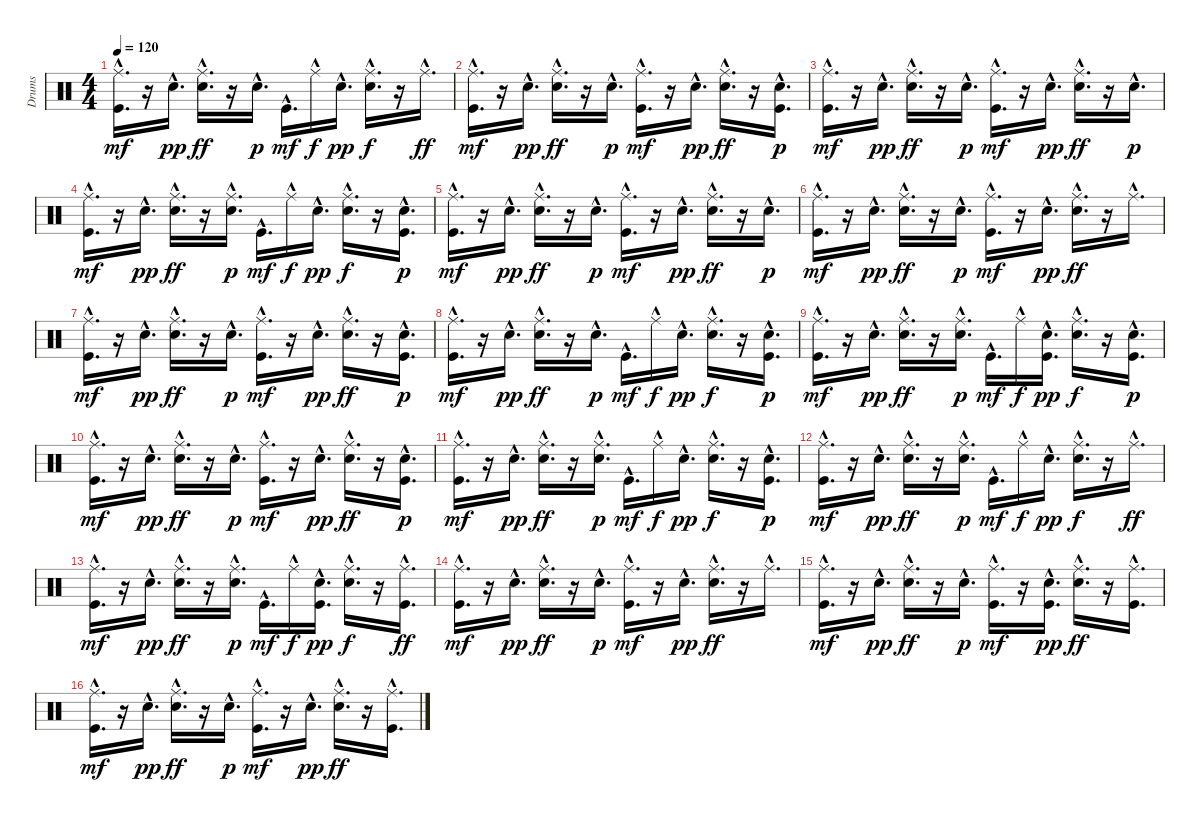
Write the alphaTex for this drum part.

\track ("Drums" "Drums") {instrument percussion}
\staff {score}
\articulation defaults
\ts (4 4)
\tempo 120
\clef neutral
\ks c
("Kick (hit)"{hac} "Ride (middle)"{hac}).16{d dy mf} r.16 "Snare (hit) 2"{hac}.16{d dy pp} ("Snare (hit) 2"{hac} "Ride (middle)"{hac}).16{d dy ff} r.16 "Snare (hit) 2"{hac}.16{d dy p} "Kick (hit)"{hac}.16{d dy mf} "Ride (middle)"{hac}.16{dy f} "Snare (hit) 2"{hac}.16{d dy pp} ("Snare (hit) 2"{hac} "Ride (middle)"{hac}).16{d dy f} r.16 "Ride (middle)"{hac}.16{d dy ff} |
("Kick (hit)"{hac} "Ride (middle)"{hac}).16{d dy mf} r.16 "Snare (hit) 2"{hac}.16{d dy pp} ("Snare (hit) 2"{hac} "Ride (middle)"{hac}).16{d dy ff} r.16 "Snare (hit) 2"{hac}.16{d dy p} ("Kick (hit)"{hac} "Ride (middle)"{hac}).16{d dy mf} r.16 "Snare (hit) 2"{hac}.16{d dy pp} ("Snare (hit) 2"{hac} "Ride (middle)"{hac}).16{d dy ff} r.16 ("Kick (hit)"{hac} "Snare (hit) 2"{hac}).16{d dy p} |
("Kick (hit)"{hac} "Ride (middle)"{hac}).16{d dy mf} r.16 "Snare (hit) 2"{hac}.16{d dy pp} ("Snare (hit) 2"{hac} "Ride (middle)"{hac}).16{d dy ff} r.16 "Snare (hit) 2"{hac}.16{d dy p} ("Kick (hit)"{hac} "Ride (middle)"{hac}).16{d dy mf} r.16 "Snare (hit) 2"{hac}.16{d dy pp} ("Snare (hit) 2"{hac} "Ride (middle)"{hac}).16{d dy ff} r.16 "Snare (hit) 2"{hac}.16{d dy p} |
("Kick (hit)"{hac} "Ride (middle)"{hac}).16{d dy mf} r.16 "Snare (hit) 2"{hac}.16{d dy pp} ("Snare (hit) 2"{hac} "Ride (middle)"{hac}).16{d dy ff} r.16 ("Snare (hit) 2"{hac} "Ride (middle)"{hac}).16{d dy p} "Kick (hit)"{hac}.16{d dy mf} "Ride (middle)"{hac}.16{dy f} "Snare (hit) 2"{hac}.16{d dy pp} ("Snare (hit) 2"{hac} "Ride (middle)"{hac}).16{d dy f} r.16 ("Kick (hit)"{hac} "Snare (hit) 2"{hac}).16{d dy p} |
("Kick (hit)"{hac} "Ride (middle)"{hac}).16{d dy mf} r.16 "Snare (hit) 2"{hac}.16{d dy pp} ("Snare (hit) 2"{hac} "Ride (middle)"{hac}).16{d dy ff} r.16 "Snare (hit) 2"{hac}.16{d dy p} ("Kick (hit)"{hac} "Ride (middle)"{hac}).16{d dy mf} r.16 "Snare (hit) 2"{hac}.16{d dy pp} ("Snare (hit) 2"{hac} "Ride (middle)"{hac}).16{d dy ff} r.16 "Snare (hit) 2"{hac}.16{d dy p} |
("Kick (hit)"{hac} "Ride (middle)"{hac}).16{d dy mf} r.16 "Snare (hit) 2"{hac}.16{d dy pp} ("Snare (hit) 2"{hac} "Ride (middle)"{hac}).16{d dy ff} r.16 "Snare (hit) 2"{hac}.16{d dy p} ("Kick (hit)"{hac} "Ride (middle)"{hac}).16{d dy mf} r.16 "Snare (hit) 2"{hac}.16{d dy pp} ("Snare (hit) 2"{hac} "Ride (middle)"{hac}).16{d dy ff} r.16 "Ride (middle)"{hac}.16{d} |
("Kick (hit)"{hac} "Ride (middle)"{hac}).16{d dy mf} r.16 "Snare (hit) 2"{hac}.16{d dy pp} ("Snare (hit) 2"{hac} "Ride (middle)"{hac}).16{d dy ff} r.16 "Snare (hit) 2"{hac}.16{d dy p} ("Kick (hit)"{hac} "Ride (middle)"{hac}).16{d dy mf} r.16 "Snare (hit) 2"{hac}.16{d dy pp} ("Snare (hit) 2"{hac} "Ride (middle)"{hac}).16{d dy ff} r.16 ("Kick (hit)"{hac} "Snare (hit) 2"{hac}).16{d dy p} |
("Kick (hit)"{hac} "Ride (middle)"{hac}).16{d dy mf} r.16 "Snare (hit) 2"{hac}.16{d dy pp} ("Snare (hit) 2"{hac} "Ride (middle)"{hac}).16{d dy ff} r.16 "Snare (hit) 2"{hac}.16{d dy p} "Kick (hit)"{hac}.16{d dy mf} "Ride (middle)"{hac}.16{dy f} "Snare (hit) 2"{hac}.16{d dy pp} ("Snare (hit) 2"{hac} "Ride (middle)"{hac}).16{d dy f} r.16 ("Kick (hit)"{hac} "Snare (hit) 2"{hac}).16{d dy p} |
("Kick (hit)"{hac} "Ride (middle)"{hac}).16{d dy mf} r.16 "Snare (hit) 2"{hac}.16{d dy pp} ("Snare (hit) 2"{hac} "Ride (middle)"{hac}).16{d dy ff} r.16 ("Snare (hit) 2"{hac} "Ride (middle)"{hac}).16{d dy p} "Kick (hit)"{hac}.16{d dy mf} "Ride (middle)"{hac}.16{dy f} ("Kick (hit)"{hac} "Snare (hit) 2"{hac}).16{d dy pp} ("Snare (hit) 2"{hac} "Ride (middle)"{hac}).16{d dy f} r.16 ("Kick (hit)"{hac} "Snare (hit) 2"{hac}).16{d dy p} |
("Kick (hit)"{hac} "Ride (middle)"{hac}).16{d dy mf} r.16 "Snare (hit) 2"{hac}.16{d dy pp} ("Snare (hit) 2"{hac} "Ride (middle)"{hac}).16{d dy ff} r.16 "Snare (hit) 2"{hac}.16{d dy p} ("Kick (hit)"{hac} "Ride (middle)"{hac}).16{d dy mf} r.16 "Snare (hit) 2"{hac}.16{d dy pp} ("Snare (hit) 2"{hac} "Ride (middle)"{hac}).16{d dy ff} r.16 ("Kick (hit)"{hac} "Snare (hit) 2"{hac}).16{d dy p} |
("Kick (hit)"{hac} "Ride (middle)"{hac}).16{d dy mf} r.16 "Snare (hit) 2"{hac}.16{d dy pp} ("Snare (hit) 2"{hac} "Ride (middle)"{hac}).16{d dy ff} r.16 ("Snare (hit) 2"{hac} "Ride (middle)"{hac}).16{d dy p} "Kick (hit)"{hac}.16{d dy mf} "Ride (middle)"{hac}.16{dy f} "Snare (hit) 2"{hac}.16{d dy pp} ("Snare (hit) 2"{hac} "Ride (middle)"{hac}).16{d dy f} r.16 ("Kick (hit)"{hac} "Snare (hit) 2"{hac}).16{d dy p} |
("Kick (hit)"{hac} "Ride (middle)"{hac}).16{d dy mf} r.16 "Snare (hit) 2"{hac}.16{d dy pp} ("Snare (hit) 2"{hac} "Ride (middle)"{hac}).16{d dy ff} r.16 ("Snare (hit) 2"{hac} "Ride (middle)"{hac}).16{d dy p} "Kick (hit)"{hac}.16{d dy mf} "Ride (middle)"{hac}.16{dy f} "Snare (hit) 2"{hac}.16{d dy pp} ("Snare (hit) 2"{hac} "Ride (middle)"{hac}).16{d dy f} r.16 "Ride (middle)"{hac}.16{d dy ff} |
("Kick (hit)"{hac} "Ride (middle)"{hac}).16{d dy mf} r.16 "Snare (hit) 2"{hac}.16{d dy pp} ("Snare (hit) 2"{hac} "Ride (middle)"{hac}).16{d dy ff} r.16 ("Snare (hit) 2"{hac} "Ride (middle)"{hac}).16{d dy p} "Kick (hit)"{hac}.16{d dy mf} "Ride (middle)"{hac}.16{dy f} ("Kick (hit)"{hac} "Snare (hit) 2"{hac}).16{d dy pp} ("Snare (hit) 2"{hac} "Ride (middle)"{hac}).16{d dy f} r.16 ("Kick (hit)"{hac} "Ride (middle)"{hac}).16{d dy ff} |
("Kick (hit)"{hac} "Ride (middle)"{hac}).16{d dy mf} r.16 "Snare (hit) 2"{hac}.16{d dy pp} ("Snare (hit) 2"{hac} "Ride (middle)"{hac}).16{d dy ff} r.16 "Snare (hit) 2"{hac}.16{d dy p} ("Kick (hit)"{hac} "Ride (middle)"{hac}).16{d dy mf} r.16 "Snare (hit) 2"{hac}.16{d dy pp} ("Snare (hit) 2"{hac} "Ride (middle)"{hac}).16{d dy ff} r.16 "Ride (middle)"{hac}.16{d} |
("Kick (hit)"{hac} "Ride (middle)"{hac}).16{d dy mf} r.16 "Snare (hit) 2"{hac}.16{d dy pp} ("Snare (hit) 2"{hac} "Ride (middle)"{hac}).16{d dy ff} r.16 "Snare (hit) 2"{hac}.16{d dy p} ("Kick (hit)"{hac} "Ride (middle)"{hac}).16{d dy mf} r.16 ("Kick (hit)"{hac} "Snare (hit) 2"{hac}).16{d dy pp} ("Snare (hit) 2"{hac} "Ride (middle)"{hac}).16{d dy ff} r.16 ("Kick (hit)"{hac} "Ride (middle)"{hac}).16{d} |
("Kick (hit)"{hac} "Ride (middle)"{hac}).16{d dy mf} r.16 "Snare (hit) 2"{hac}.16{d dy pp} ("Snare (hit) 2"{hac} "Ride (middle)"{hac}).16{d dy ff} r.16 "Snare (hit) 2"{hac}.16{d dy p} ("Kick (hit)"{hac} "Ride (middle)"{hac}).16{d dy mf} r.16 "Snare (hit) 2"{hac}.16{d dy pp} ("Snare (hit) 2"{hac} "Ride (middle)"{hac}).16{d dy ff} r.16 ("Kick (hit)"{hac} "Ride (middle)"{hac}).16{d}
